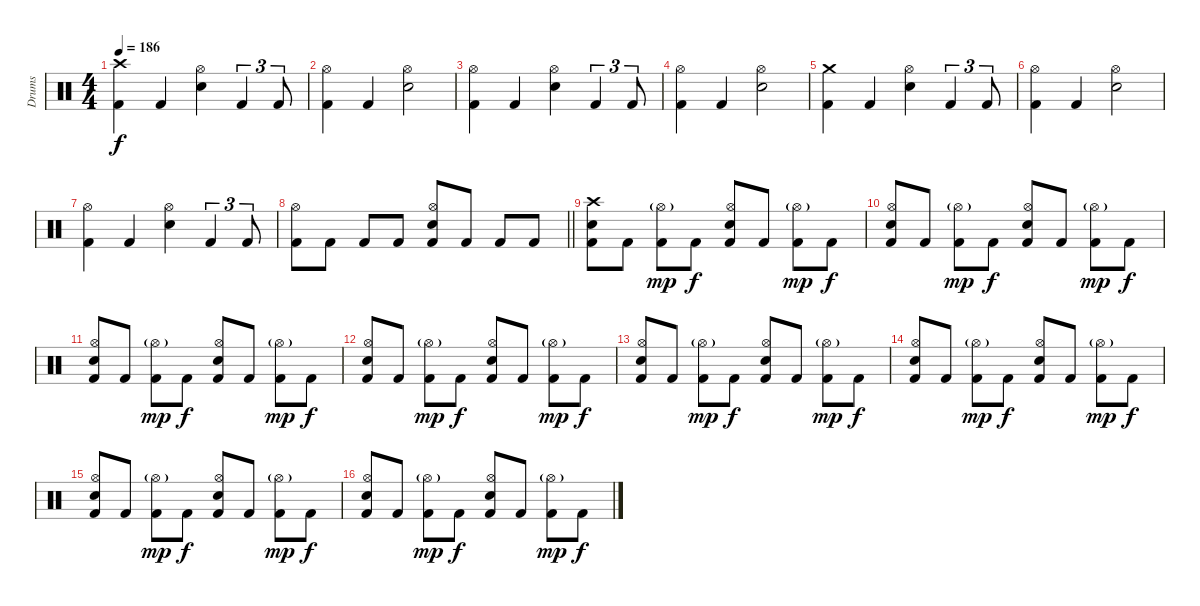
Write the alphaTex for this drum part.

\track ("Drums" "Drums") {instrument percussion}
\staff {score}
\articulation defaults
\ts (4 4)
\tempo 186
\clef neutral
\ks c
("Crash high (hit)" "Kick (hit) 2").4{dy f} "Kick (hit) 2".4 ("Hi-Hat (open)" "Electric Snare (hit)").4 "Kick (hit) 2".4{tu (3 2)} "Kick (hit) 2".8{tu (3 2)} |
("Hi-Hat (open)" "Kick (hit) 2").4 "Kick (hit) 2".4 ("Hi-Hat (open)" "Electric Snare (hit)").2 |
("Hi-Hat (open)" "Kick (hit) 2").4 "Kick (hit) 2".4 ("Hi-Hat (open)" "Electric Snare (hit)").4 "Kick (hit) 2".4{tu (3 2)} "Kick (hit) 2".8{tu (3 2)} |
("Hi-Hat (open)" "Kick (hit) 2").4 "Kick (hit) 2".4 ("Hi-Hat (open)" "Electric Snare (hit)").2 |
("Crash medium (hit)" "Kick (hit) 2").4 "Kick (hit) 2".4 ("Hi-Hat (open)" "Electric Snare (hit)").4 "Kick (hit) 2".4{tu (3 2)} "Kick (hit) 2".8{tu (3 2)} |
("Hi-Hat (open)" "Kick (hit) 2").4 "Kick (hit) 2".4 ("Hi-Hat (open)" "Electric Snare (hit)").2 |
("Hi-Hat (open)" "Kick (hit) 2").4 "Kick (hit) 2".4 ("Hi-Hat (open)" "Electric Snare (hit)").4 "Kick (hit) 2".4{tu (3 2)} "Kick (hit) 2".8{tu (3 2)} |
\barLineRight lightlight
("Hi-Hat (open)" "Kick (hit) 2").8 "Kick (hit) 2".8 "Kick (hit) 2".8 "Kick (hit) 2".8 ("Hi-Hat (open)" "Electric Snare (hit)" "Kick (hit) 2").8 "Kick (hit) 2".8 "Kick (hit) 2".8 "Kick (hit) 2".8 |
\section ("" "")
("Crash high (hit)" "Electric Snare (hit)" "Kick (hit) 2").8 "Kick (hit) 2".8 ("Hi-Hat (open)"{g} "Kick (hit) 2").8{dy mp} "Kick (hit) 2".8{dy f} ("Hi-Hat (open)" "Electric Snare (hit)" "Kick (hit) 2").8 "Kick (hit) 2".8 ("Hi-Hat (open)"{g} "Kick (hit) 2").8{dy mp} "Kick (hit) 2".8{dy f} |
("Hi-Hat (open)" "Electric Snare (hit)" "Kick (hit) 2").8 "Kick (hit) 2".8 ("Hi-Hat (open)"{g} "Kick (hit) 2").8{dy mp} "Kick (hit) 2".8{dy f} ("Hi-Hat (open)" "Electric Snare (hit)" "Kick (hit) 2").8 "Kick (hit) 2".8 ("Hi-Hat (open)"{g} "Kick (hit) 2").8{dy mp} "Kick (hit) 2".8{dy f} |
("Hi-Hat (open)" "Electric Snare (hit)" "Kick (hit) 2").8 "Kick (hit) 2".8 ("Hi-Hat (open)"{g} "Kick (hit) 2").8{dy mp} "Kick (hit) 2".8{dy f} ("Hi-Hat (open)" "Electric Snare (hit)" "Kick (hit) 2").8 "Kick (hit) 2".8 ("Hi-Hat (open)"{g} "Kick (hit) 2").8{dy mp} "Kick (hit) 2".8{dy f} |
("Hi-Hat (open)" "Electric Snare (hit)" "Kick (hit) 2").8 "Kick (hit) 2".8 ("Hi-Hat (open)"{g} "Kick (hit) 2").8{dy mp} "Kick (hit) 2".8{dy f} ("Hi-Hat (open)" "Electric Snare (hit)" "Kick (hit) 2").8 "Kick (hit) 2".8 ("Hi-Hat (open)"{g} "Kick (hit) 2").8{dy mp} "Kick (hit) 2".8{dy f} |
("Hi-Hat (open)" "Electric Snare (hit)" "Kick (hit) 2").8 "Kick (hit) 2".8 ("Hi-Hat (open)"{g} "Kick (hit) 2").8{dy mp} "Kick (hit) 2".8{dy f} ("Hi-Hat (open)" "Electric Snare (hit)" "Kick (hit) 2").8 "Kick (hit) 2".8 ("Hi-Hat (open)"{g} "Kick (hit) 2").8{dy mp} "Kick (hit) 2".8{dy f} |
("Hi-Hat (open)" "Electric Snare (hit)" "Kick (hit) 2").8 "Kick (hit) 2".8 ("Hi-Hat (open)"{g} "Kick (hit) 2").8{dy mp} "Kick (hit) 2".8{dy f} ("Hi-Hat (open)" "Electric Snare (hit)" "Kick (hit) 2").8 "Kick (hit) 2".8 ("Hi-Hat (open)"{g} "Kick (hit) 2").8{dy mp} "Kick (hit) 2".8{dy f} |
("Hi-Hat (open)" "Electric Snare (hit)" "Kick (hit) 2").8 "Kick (hit) 2".8 ("Hi-Hat (open)"{g} "Kick (hit) 2").8{dy mp} "Kick (hit) 2".8{dy f} ("Hi-Hat (open)" "Electric Snare (hit)" "Kick (hit) 2").8 "Kick (hit) 2".8 ("Hi-Hat (open)"{g} "Kick (hit) 2").8{dy mp} "Kick (hit) 2".8{dy f} |
("Hi-Hat (open)" "Electric Snare (hit)" "Kick (hit) 2").8 "Kick (hit) 2".8 ("Hi-Hat (open)"{g} "Kick (hit) 2").8{dy mp} "Kick (hit) 2".8{dy f} ("Hi-Hat (open)" "Electric Snare (hit)" "Kick (hit) 2").8 "Kick (hit) 2".8 ("Hi-Hat (open)"{g} "Kick (hit) 2").8{dy mp} "Kick (hit) 2".8{dy f}
